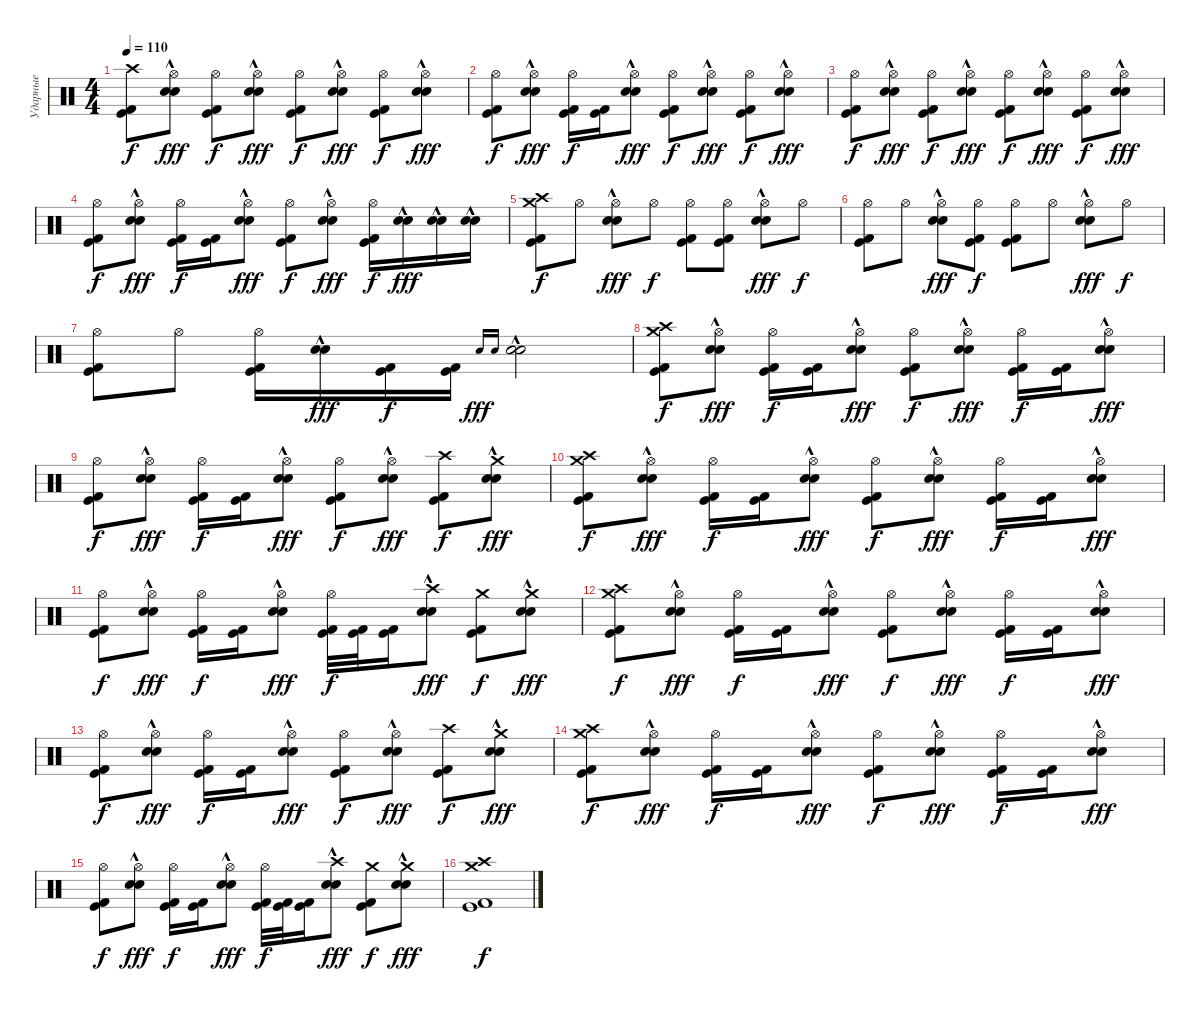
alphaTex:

\track ("Ударные" "Ударные") {instrument percussion}
\staff {score}
\articulation defaults
\ts (4 4)
\tempo 110
\clef neutral
\ks c
("Crash high (hit)" "Kick (hit)" "Kick (hit) 2").8{dy f} ("Hi-Hat (open)" "Snare (hit) 2"{hac} "Electric Snare (hit)"{hac}).8{dy fff} ("Hi-Hat (open)" "Kick (hit)" "Kick (hit) 2").8{dy f} ("Hi-Hat (open)" "Snare (hit) 2"{hac} "Electric Snare (hit)"{hac}).8{dy fff} ("Hi-Hat (open)" "Kick (hit)" "Kick (hit) 2").8{dy f} ("Hi-Hat (open)" "Snare (hit) 2"{hac} "Electric Snare (hit)"{hac}).8{dy fff} ("Hi-Hat (open)" "Kick (hit)" "Kick (hit) 2").8{dy f} ("Hi-Hat (open)" "Snare (hit) 2"{hac} "Electric Snare (hit)"{hac}).8{dy fff} |
("Hi-Hat (open)" "Kick (hit)" "Kick (hit) 2").8{dy f} ("Hi-Hat (open)" "Snare (hit) 2"{hac} "Electric Snare (hit)"{hac}).8{dy fff} ("Hi-Hat (open)" "Kick (hit)" "Kick (hit) 2").16{dy f} ("Kick (hit)" "Kick (hit) 2").16 ("Hi-Hat (open)" "Snare (hit) 2"{hac} "Electric Snare (hit)"{hac}).8{dy fff} ("Hi-Hat (open)" "Kick (hit)" "Kick (hit) 2").8{dy f} ("Hi-Hat (open)" "Snare (hit) 2"{hac} "Electric Snare (hit)"{hac}).8{dy fff} ("Hi-Hat (open)" "Kick (hit)" "Kick (hit) 2").8{dy f} ("Hi-Hat (open)" "Snare (hit) 2"{hac} "Electric Snare (hit)"{hac}).8{dy fff} |
("Hi-Hat (open)" "Kick (hit)" "Kick (hit) 2").8{dy f} ("Hi-Hat (open)" "Snare (hit) 2"{hac} "Electric Snare (hit)"{hac}).8{dy fff} ("Hi-Hat (open)" "Kick (hit)" "Kick (hit) 2").8{dy f} ("Hi-Hat (open)" "Snare (hit) 2"{hac} "Electric Snare (hit)"{hac}).8{dy fff} ("Hi-Hat (open)" "Kick (hit)" "Kick (hit) 2").8{dy f} ("Hi-Hat (open)" "Snare (hit) 2"{hac} "Electric Snare (hit)"{hac}).8{dy fff} ("Hi-Hat (open)" "Kick (hit)" "Kick (hit) 2").8{dy f} ("Hi-Hat (open)" "Snare (hit) 2"{hac} "Electric Snare (hit)"{hac}).8{dy fff} |
("Hi-Hat (open)" "Kick (hit)" "Kick (hit) 2").8{dy f} ("Hi-Hat (open)" "Snare (hit) 2"{hac} "Electric Snare (hit)"{hac}).8{dy fff} ("Hi-Hat (open)" "Kick (hit)" "Kick (hit) 2").16{dy f} ("Kick (hit)" "Kick (hit) 2").16 ("Hi-Hat (open)" "Snare (hit) 2"{hac} "Electric Snare (hit)"{hac}).8{dy fff} ("Hi-Hat (open)" "Kick (hit)" "Kick (hit) 2").8{dy f} ("Hi-Hat (open)" "Snare (hit) 2"{hac} "Electric Snare (hit)"{hac}).8{dy fff} ("Hi-Hat (open)" "Kick (hit)" "Kick (hit) 2").16{dy f} ("Snare (hit) 2"{hac} "Electric Snare (hit)"{hac}).16{dy fff} ("Snare (hit) 2"{hac} "Electric Snare (hit)"{hac}).16 ("Snare (hit) 2"{hac} "Electric Snare (hit)"{hac}).16 |
("Crash high (hit)" "Kick (hit)" "Kick (hit) 2" "Crash medium (hit)").8{dy f} "Hi-Hat (open)".8 ("Hi-Hat (open)" "Snare (hit) 2"{hac} "Electric Snare (hit)"{hac}).8{dy fff} "Hi-Hat (open)".8{dy f} ("Hi-Hat (open)" "Kick (hit)" "Kick (hit) 2").8 ("Hi-Hat (open)" "Kick (hit)" "Kick (hit) 2").8 ("Hi-Hat (open)" "Snare (hit) 2"{hac} "Electric Snare (hit)"{hac}).8{dy fff} "Hi-Hat (open)".8{dy f} |
("Hi-Hat (open)" "Kick (hit)" "Kick (hit) 2").8 "Hi-Hat (open)".8 ("Hi-Hat (open)" "Snare (hit) 2"{hac} "Electric Snare (hit)"{hac}).8{dy fff} ("Hi-Hat (open)" "Kick (hit)" "Kick (hit) 2").8{dy f} ("Hi-Hat (open)" "Kick (hit)" "Kick (hit) 2").8 "Hi-Hat (open)".8 ("Hi-Hat (open)" "Snare (hit) 2"{hac} "Electric Snare (hit)"{hac}).8{dy fff} "Hi-Hat (open)".8{dy f} |
("Hi-Hat (open)" "Kick (hit)" "Kick (hit) 2").8 "Hi-Hat (open)".8 ("Hi-Hat (open)" "Kick (hit)" "Kick (hit) 2").16 ("Snare (hit) 2"{hac} "Electric Snare (hit)"{hac}).16{dy fff} ("Kick (hit)" "Kick (hit) 2").16{dy f} ("Kick (hit)" "Kick (hit) 2").16 "Snare (hit) 2".16{gr onbeat dy fff} "Electric Snare (hit)".16{gr onbeat} ("Snare (hit) 2"{hac} "Electric Snare (hit)"{hac}).2 |
("Crash high (hit)" "Kick (hit)" "Kick (hit) 2" "Crash medium (hit)").8{dy f} ("Hi-Hat (open)" "Snare (hit) 2"{hac} "Electric Snare (hit)"{hac}).8{dy fff} ("Hi-Hat (open)" "Kick (hit)" "Kick (hit) 2").16{dy f} ("Kick (hit)" "Kick (hit) 2").16 ("Hi-Hat (open)" "Snare (hit) 2"{hac} "Electric Snare (hit)"{hac}).8{dy fff} ("Hi-Hat (open)" "Kick (hit)" "Kick (hit) 2").8{dy f} ("Hi-Hat (open)" "Snare (hit) 2"{hac} "Electric Snare (hit)"{hac}).8{dy fff} ("Hi-Hat (open)" "Kick (hit)" "Kick (hit) 2").16{dy f} ("Kick (hit)" "Kick (hit) 2").16 ("Hi-Hat (open)" "Snare (hit) 2"{hac} "Electric Snare (hit)"{hac}).8{dy fff} |
("Hi-Hat (open)" "Kick (hit)" "Kick (hit) 2").8{dy f} ("Hi-Hat (open)" "Snare (hit) 2"{hac} "Electric Snare (hit)"{hac}).8{dy fff} ("Hi-Hat (open)" "Kick (hit)" "Kick (hit) 2").16{dy f} ("Kick (hit)" "Kick (hit) 2").16 ("Hi-Hat (open)" "Snare (hit) 2"{hac} "Electric Snare (hit)"{hac}).8{dy fff} ("Hi-Hat (open)" "Kick (hit)" "Kick (hit) 2").8{dy f} ("Hi-Hat (open)" "Snare (hit) 2"{hac} "Electric Snare (hit)"{hac}).8{dy fff} ("Crash high (hit)" "Kick (hit)" "Kick (hit) 2").8{dy f} ("Crash medium (hit)" "Snare (hit) 2"{hac} "Electric Snare (hit)"{hac}).8{dy fff} |
("Crash high (hit)" "Kick (hit)" "Kick (hit) 2" "Crash medium (hit)").8{dy f} ("Hi-Hat (open)" "Snare (hit) 2"{hac} "Electric Snare (hit)"{hac}).8{dy fff} ("Hi-Hat (open)" "Kick (hit)" "Kick (hit) 2").16{dy f} ("Kick (hit)" "Kick (hit) 2").16 ("Hi-Hat (open)" "Snare (hit) 2"{hac} "Electric Snare (hit)"{hac}).8{dy fff} ("Hi-Hat (open)" "Kick (hit)" "Kick (hit) 2").8{dy f} ("Hi-Hat (open)" "Snare (hit) 2"{hac} "Electric Snare (hit)"{hac}).8{dy fff} ("Hi-Hat (open)" "Kick (hit)" "Kick (hit) 2").16{dy f} ("Kick (hit)" "Kick (hit) 2").16 ("Hi-Hat (open)" "Snare (hit) 2"{hac} "Electric Snare (hit)"{hac}).8{dy fff} |
("Hi-Hat (open)" "Kick (hit)" "Kick (hit) 2").8{dy f} ("Hi-Hat (open)" "Snare (hit) 2"{hac} "Electric Snare (hit)"{hac}).8{dy fff} ("Hi-Hat (open)" "Kick (hit)" "Kick (hit) 2").16{dy f} ("Kick (hit)" "Kick (hit) 2").16 ("Hi-Hat (open)" "Snare (hit) 2"{hac} "Electric Snare (hit)"{hac}).8{dy fff} ("Hi-Hat (open)" "Kick (hit)" "Kick (hit) 2").32{dy f} ("Kick (hit)" "Kick (hit) 2").32 ("Kick (hit)" "Kick (hit) 2").16 ("Crash high (hit)" "Snare (hit) 2"{hac} "Electric Snare (hit)"{hac}).8{dy fff} ("Crash medium (hit)" "Kick (hit)" "Kick (hit) 2").8{dy f} ("Crash medium (hit)" "Snare (hit) 2"{hac} "Electric Snare (hit)"{hac}).8{dy fff} |
("Crash high (hit)" "Kick (hit)" "Kick (hit) 2" "Crash medium (hit)").8{dy f} ("Hi-Hat (open)" "Snare (hit) 2"{hac} "Electric Snare (hit)"{hac}).8{dy fff} ("Hi-Hat (open)" "Kick (hit)" "Kick (hit) 2").16{dy f} ("Kick (hit)" "Kick (hit) 2").16 ("Hi-Hat (open)" "Snare (hit) 2"{hac} "Electric Snare (hit)"{hac}).8{dy fff} ("Hi-Hat (open)" "Kick (hit)" "Kick (hit) 2").8{dy f} ("Hi-Hat (open)" "Snare (hit) 2"{hac} "Electric Snare (hit)"{hac}).8{dy fff} ("Hi-Hat (open)" "Kick (hit)" "Kick (hit) 2").16{dy f} ("Kick (hit)" "Kick (hit) 2").16 ("Hi-Hat (open)" "Snare (hit) 2"{hac} "Electric Snare (hit)"{hac}).8{dy fff} |
("Hi-Hat (open)" "Kick (hit)" "Kick (hit) 2").8{dy f} ("Hi-Hat (open)" "Snare (hit) 2"{hac} "Electric Snare (hit)"{hac}).8{dy fff} ("Hi-Hat (open)" "Kick (hit)" "Kick (hit) 2").16{dy f} ("Kick (hit)" "Kick (hit) 2").16 ("Hi-Hat (open)" "Snare (hit) 2"{hac} "Electric Snare (hit)"{hac}).8{dy fff} ("Hi-Hat (open)" "Kick (hit)" "Kick (hit) 2").8{dy f} ("Hi-Hat (open)" "Snare (hit) 2"{hac} "Electric Snare (hit)"{hac}).8{dy fff} ("Crash high (hit)" "Kick (hit)" "Kick (hit) 2").8{dy f} ("Crash medium (hit)" "Snare (hit) 2"{hac} "Electric Snare (hit)"{hac}).8{dy fff} |
("Crash high (hit)" "Kick (hit)" "Kick (hit) 2" "Crash medium (hit)").8{dy f} ("Hi-Hat (open)" "Snare (hit) 2"{hac} "Electric Snare (hit)"{hac}).8{dy fff} ("Hi-Hat (open)" "Kick (hit)" "Kick (hit) 2").16{dy f} ("Kick (hit)" "Kick (hit) 2").16 ("Hi-Hat (open)" "Snare (hit) 2"{hac} "Electric Snare (hit)"{hac}).8{dy fff} ("Hi-Hat (open)" "Kick (hit)" "Kick (hit) 2").8{dy f} ("Hi-Hat (open)" "Snare (hit) 2"{hac} "Electric Snare (hit)"{hac}).8{dy fff} ("Hi-Hat (open)" "Kick (hit)" "Kick (hit) 2").16{dy f} ("Kick (hit)" "Kick (hit) 2").16 ("Hi-Hat (open)" "Snare (hit) 2"{hac} "Electric Snare (hit)"{hac}).8{dy fff} |
("Hi-Hat (open)" "Kick (hit)" "Kick (hit) 2").8{dy f} ("Hi-Hat (open)" "Snare (hit) 2"{hac} "Electric Snare (hit)"{hac}).8{dy fff} ("Hi-Hat (open)" "Kick (hit)" "Kick (hit) 2").16{dy f} ("Kick (hit)" "Kick (hit) 2").16 ("Hi-Hat (open)" "Snare (hit) 2"{hac} "Electric Snare (hit)"{hac}).8{dy fff} ("Hi-Hat (open)" "Kick (hit)" "Kick (hit) 2").32{dy f} ("Kick (hit)" "Kick (hit) 2").32 ("Kick (hit)" "Kick (hit) 2").16 ("Crash high (hit)" "Snare (hit) 2"{hac} "Electric Snare (hit)"{hac}).8{dy fff} ("Crash medium (hit)" "Kick (hit)" "Kick (hit) 2").8{dy f} ("Crash medium (hit)" "Snare (hit) 2"{hac} "Electric Snare (hit)"{hac}).8{dy fff} |
("Crash high (hit)" "Kick (hit)" "Kick (hit) 2" "Crash medium (hit)").1{dy f}
